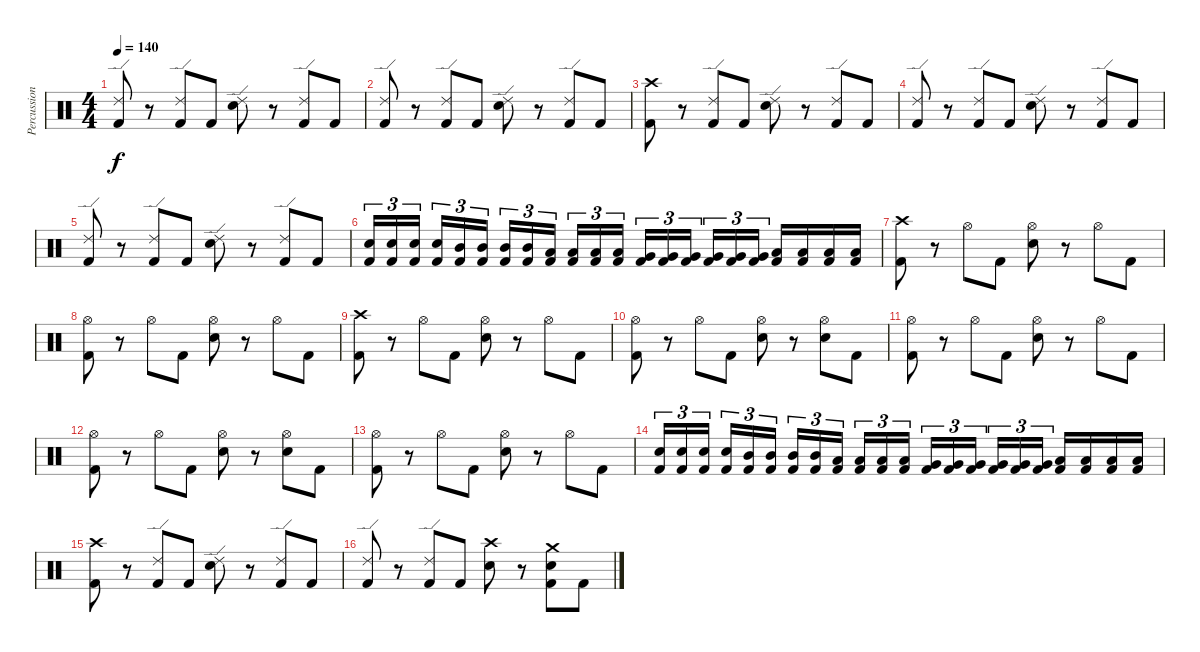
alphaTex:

\track ("Percussion" "Percussion") {instrument percussion}
\staff {score}
\articulation defaults
\ts (4 4)
\tempo 140
\clef neutral
\ks c
("Ride (edge) 2" "Kick (hit) 2").8{dy f} r.8 ("Ride (edge) 2" "Kick (hit) 2").8 "Kick (hit) 2".8 ("Ride (edge) 2" "Snare (hit) 2").8 r.8 ("Ride (edge) 2" "Kick (hit) 2").8 "Kick (hit) 2".8 |
("Ride (edge) 2" "Kick (hit) 2").8 r.8 ("Ride (edge) 2" "Kick (hit) 2").8 "Kick (hit) 2".8 ("Ride (edge) 2" "Snare (hit) 2").8 r.8 ("Ride (edge) 2" "Kick (hit) 2").8 "Kick (hit) 2".8 |
("Crash high (hit)" "Kick (hit) 2").8 r.8 ("Ride (edge) 2" "Kick (hit) 2").8 "Kick (hit) 2".8 ("Ride (edge) 2" "Snare (hit) 2").8 r.8 ("Ride (edge) 2" "Kick (hit) 2").8 "Kick (hit) 2".8 |
("Ride (edge) 2" "Kick (hit) 2").8 r.8 ("Ride (edge) 2" "Kick (hit) 2").8 "Kick (hit) 2".8 ("Ride (edge) 2" "Snare (hit) 2").8 r.8 ("Ride (edge) 2" "Kick (hit) 2").8 "Kick (hit) 2".8 |
("Ride (edge) 2" "Kick (hit) 2").8 r.8 ("Ride (edge) 2" "Kick (hit) 2").8 "Kick (hit) 2".8 ("Ride (edge) 2" "Snare (hit) 2").8 r.8 ("Ride (edge) 2" "Kick (hit) 2").8 "Kick (hit) 2".8 |
("Snare (hit) 2" "Kick (hit) 2").16{tu (3 2)} ("Snare (hit) 2" "Kick (hit) 2").16{tu (3 2)} ("Snare (hit) 2" "Kick (hit) 2").16{tu (3 2)} ("Snare (hit) 2" "Kick (hit) 2").16{tu (3 2)} ("Mid Tom (hit)" "Kick (hit) 2").16{tu (3 2)} ("Mid Tom (hit)" "Kick (hit) 2").16{tu (3 2)} ("Mid Tom (hit)" "Kick (hit) 2").16{tu (3 2)} ("Mid Tom (hit)" "Kick (hit) 2").16{tu (3 2)} ("Low Tom (hit)" "Kick (hit) 2").16{tu (3 2)} ("Low Tom (hit)" "Kick (hit) 2").16{tu (3 2)} ("Low Tom (hit)" "Kick (hit) 2").16{tu (3 2)} ("Low Tom (hit)" "Kick (hit) 2").16{tu (3 2)} ("Very Low Tom (hit)" "Kick (hit) 2").16{tu (3 2)} ("Very Low Tom (hit)" "Kick (hit) 2").16{tu (3 2)} ("Very Low Tom (hit)" "Kick (hit) 2").16{tu (3 2)} ("Very Low Tom (hit)" "Kick (hit) 2").16{tu (3 2)} ("Very Low Tom (hit)" "Kick (hit) 2").16{tu (3 2)} ("Very Low Tom (hit)" "Kick (hit) 2").16{tu (3 2)} ("Low Floor Tom (hit)" "Kick (hit) 2").16 ("Low Floor Tom (hit)" "Kick (hit) 2").16 ("Low Floor Tom (hit)" "Kick (hit) 2").16 ("Low Floor Tom (hit)" "Kick (hit) 2").16 |
("Crash high (hit)" "Kick (hit) 2").8 r.8 "Hi-Hat (open)".8 "Kick (hit) 2".8 ("Hi-Hat (open)" "Snare (hit) 2").8 r.8 "Hi-Hat (open)".8 "Kick (hit) 2".8 |
("Hi-Hat (open)" "Kick (hit) 2").8 r.8 "Hi-Hat (open)".8 "Kick (hit) 2".8 ("Hi-Hat (open)" "Snare (hit) 2").8 r.8 "Hi-Hat (open)".8 "Kick (hit) 2".8 |
("Crash high (hit)" "Kick (hit) 2").8 r.8 "Hi-Hat (open)".8 "Kick (hit) 2".8 ("Hi-Hat (open)" "Snare (hit) 2").8 r.8 "Hi-Hat (open)".8 "Kick (hit) 2".8 |
("Hi-Hat (open)" "Kick (hit) 2").8 r.8 "Hi-Hat (open)".8 "Kick (hit) 2".8 ("Hi-Hat (open)" "Snare (hit) 2").8 r.8 ("Hi-Hat (open)" "Snare (hit) 2").8 "Kick (hit) 2".8 |
("Hi-Hat (open)" "Kick (hit) 2").8 r.8 "Hi-Hat (open)".8 "Kick (hit) 2".8 ("Hi-Hat (open)" "Snare (hit) 2").8 r.8 "Hi-Hat (open)".8 "Kick (hit) 2".8 |
("Hi-Hat (open)" "Kick (hit) 2").8 r.8 "Hi-Hat (open)".8 "Kick (hit) 2".8 ("Hi-Hat (open)" "Snare (hit) 2").8 r.8 ("Hi-Hat (open)" "Snare (hit) 2").8 "Kick (hit) 2".8 |
("Hi-Hat (open)" "Kick (hit) 2").8 r.8 "Hi-Hat (open)".8 "Kick (hit) 2".8 ("Hi-Hat (open)" "Snare (hit) 2").8 r.8 "Hi-Hat (open)".8 "Kick (hit) 2".8 |
("Snare (hit) 2" "Kick (hit) 2").16{tu (3 2)} ("Snare (hit) 2" "Kick (hit) 2").16{tu (3 2)} ("Snare (hit) 2" "Kick (hit) 2").16{tu (3 2)} ("Snare (hit) 2" "Kick (hit) 2").16{tu (3 2)} ("Mid Tom (hit)" "Kick (hit) 2").16{tu (3 2)} ("Mid Tom (hit)" "Kick (hit) 2").16{tu (3 2)} ("Mid Tom (hit)" "Kick (hit) 2").16{tu (3 2)} ("Mid Tom (hit)" "Kick (hit) 2").16{tu (3 2)} ("Low Tom (hit)" "Kick (hit) 2").16{tu (3 2)} ("Low Tom (hit)" "Kick (hit) 2").16{tu (3 2)} ("Low Tom (hit)" "Kick (hit) 2").16{tu (3 2)} ("Low Tom (hit)" "Kick (hit) 2").16{tu (3 2)} ("Very Low Tom (hit)" "Kick (hit) 2").16{tu (3 2)} ("Very Low Tom (hit)" "Kick (hit) 2").16{tu (3 2)} ("Very Low Tom (hit)" "Kick (hit) 2").16{tu (3 2)} ("Very Low Tom (hit)" "Kick (hit) 2").16{tu (3 2)} ("Very Low Tom (hit)" "Kick (hit) 2").16{tu (3 2)} ("Very Low Tom (hit)" "Kick (hit) 2").16{tu (3 2)} ("Low Floor Tom (hit)" "Kick (hit) 2").16 ("Low Floor Tom (hit)" "Kick (hit) 2").16 ("Low Floor Tom (hit)" "Kick (hit) 2").16 ("Low Floor Tom (hit)" "Kick (hit) 2").16 |
("Crash high (hit)" "Kick (hit) 2").8 r.8 ("Ride (edge) 2" "Kick (hit) 2").8 "Kick (hit) 2".8 ("Ride (edge) 2" "Snare (hit) 2").8 r.8 ("Ride (edge) 2" "Kick (hit) 2").8 "Kick (hit) 2".8 |
("Ride (edge) 2" "Kick (hit) 2").8 r.8 ("Ride (edge) 2" "Kick (hit) 2").8 "Kick (hit) 2".8 ("Crash high (hit)" "Snare (hit) 2").8 r.8 ("Crash medium (hit)" "Snare (hit) 2" "Kick (hit) 2").8 "Kick (hit) 2".8
